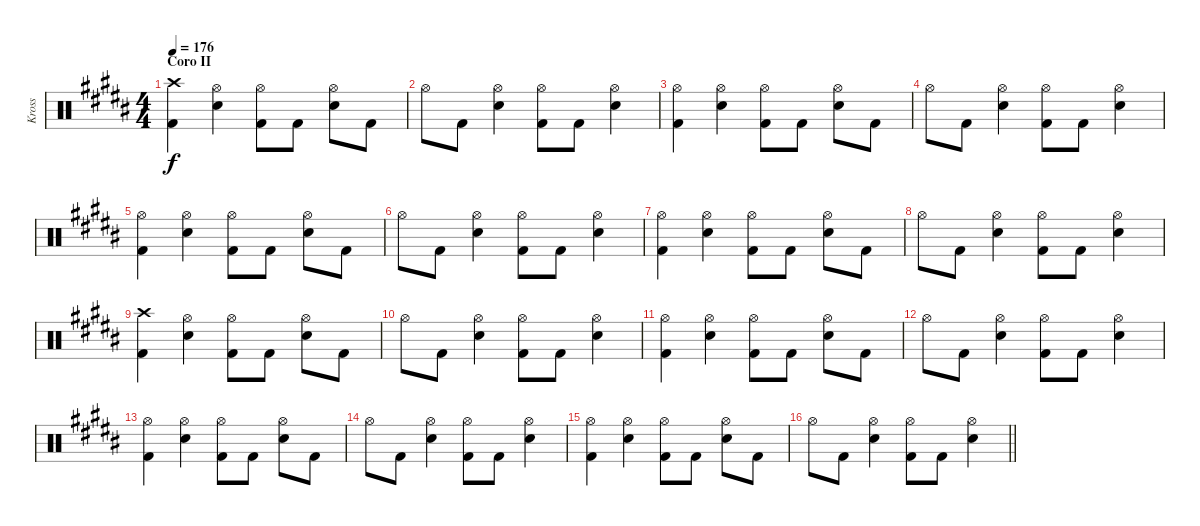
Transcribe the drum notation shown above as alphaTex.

\track ("Kross" "Kross") {instrument percussion}
\staff {score}
\articulation defaults
\ts (4 4)
\section ("" "Coro II")
\tempo 176
\clef neutral
\ks b
("Crash high (hit)" "Kick (hit) 2").4{dy f} ("Hi-Hat (open)" "Electric Snare (hit)").4 ("Hi-Hat (open)" "Kick (hit) 2").8 "Kick (hit) 2".8 ("Hi-Hat (open)" "Electric Snare (hit)").8 "Kick (hit) 2".8 |
"Hi-Hat (open)".8 "Kick (hit) 2".8 ("Hi-Hat (open)" "Electric Snare (hit)").4 ("Hi-Hat (open)" "Kick (hit) 2").8 "Kick (hit) 2".8 ("Hi-Hat (open)" "Electric Snare (hit)").4 |
("Hi-Hat (open)" "Kick (hit) 2").4 ("Hi-Hat (open)" "Electric Snare (hit)").4 ("Hi-Hat (open)" "Kick (hit) 2").8 "Kick (hit) 2".8 ("Hi-Hat (open)" "Electric Snare (hit)").8 "Kick (hit) 2".8 |
"Hi-Hat (open)".8 "Kick (hit) 2".8 ("Hi-Hat (open)" "Electric Snare (hit)").4 ("Hi-Hat (open)" "Kick (hit) 2").8 "Kick (hit) 2".8 ("Hi-Hat (open)" "Electric Snare (hit)").4 |
("Hi-Hat (open)" "Kick (hit) 2").4 ("Hi-Hat (open)" "Electric Snare (hit)").4 ("Hi-Hat (open)" "Kick (hit) 2").8 "Kick (hit) 2".8 ("Hi-Hat (open)" "Electric Snare (hit)").8 "Kick (hit) 2".8 |
"Hi-Hat (open)".8 "Kick (hit) 2".8 ("Hi-Hat (open)" "Electric Snare (hit)").4 ("Hi-Hat (open)" "Kick (hit) 2").8 "Kick (hit) 2".8 ("Hi-Hat (open)" "Electric Snare (hit)").4 |
("Hi-Hat (open)" "Kick (hit) 2").4 ("Hi-Hat (open)" "Electric Snare (hit)").4 ("Hi-Hat (open)" "Kick (hit) 2").8 "Kick (hit) 2".8 ("Hi-Hat (open)" "Electric Snare (hit)").8 "Kick (hit) 2".8 |
"Hi-Hat (open)".8 "Kick (hit) 2".8 ("Hi-Hat (open)" "Electric Snare (hit)").4 ("Hi-Hat (open)" "Kick (hit) 2").8 "Kick (hit) 2".8 ("Hi-Hat (open)" "Electric Snare (hit)").4 |
("Crash high (hit)" "Kick (hit) 2").4 ("Hi-Hat (open)" "Electric Snare (hit)").4 ("Hi-Hat (open)" "Kick (hit) 2").8 "Kick (hit) 2".8 ("Hi-Hat (open)" "Electric Snare (hit)").8 "Kick (hit) 2".8 |
"Hi-Hat (open)".8 "Kick (hit) 2".8 ("Hi-Hat (open)" "Electric Snare (hit)").4 ("Hi-Hat (open)" "Kick (hit) 2").8 "Kick (hit) 2".8 ("Hi-Hat (open)" "Electric Snare (hit)").4 |
("Hi-Hat (open)" "Kick (hit) 2").4 ("Hi-Hat (open)" "Electric Snare (hit)").4 ("Hi-Hat (open)" "Kick (hit) 2").8 "Kick (hit) 2".8 ("Hi-Hat (open)" "Electric Snare (hit)").8 "Kick (hit) 2".8 |
"Hi-Hat (open)".8 "Kick (hit) 2".8 ("Hi-Hat (open)" "Electric Snare (hit)").4 ("Hi-Hat (open)" "Kick (hit) 2").8 "Kick (hit) 2".8 ("Hi-Hat (open)" "Electric Snare (hit)").4 |
("Hi-Hat (open)" "Kick (hit) 2").4 ("Hi-Hat (open)" "Electric Snare (hit)").4 ("Hi-Hat (open)" "Kick (hit) 2").8 "Kick (hit) 2".8 ("Hi-Hat (open)" "Electric Snare (hit)").8 "Kick (hit) 2".8 |
"Hi-Hat (open)".8 "Kick (hit) 2".8 ("Hi-Hat (open)" "Electric Snare (hit)").4 ("Hi-Hat (open)" "Kick (hit) 2").8 "Kick (hit) 2".8 ("Hi-Hat (open)" "Electric Snare (hit)").4 |
("Hi-Hat (open)" "Kick (hit) 2").4 ("Hi-Hat (open)" "Electric Snare (hit)").4 ("Hi-Hat (open)" "Kick (hit) 2").8 "Kick (hit) 2".8 ("Hi-Hat (open)" "Electric Snare (hit)").8 "Kick (hit) 2".8 |
\barLineRight lightlight "Hi-Hat (open)".8 "Kick (hit) 2".8
("Hi-Hat (open)" "Electric Snare (hit)").4 ("Hi-Hat (open)" "Kick (hit) 2").8 "Kick (hit) 2".8 ("Hi-Hat (open)" "Electric Snare (hit)").4
